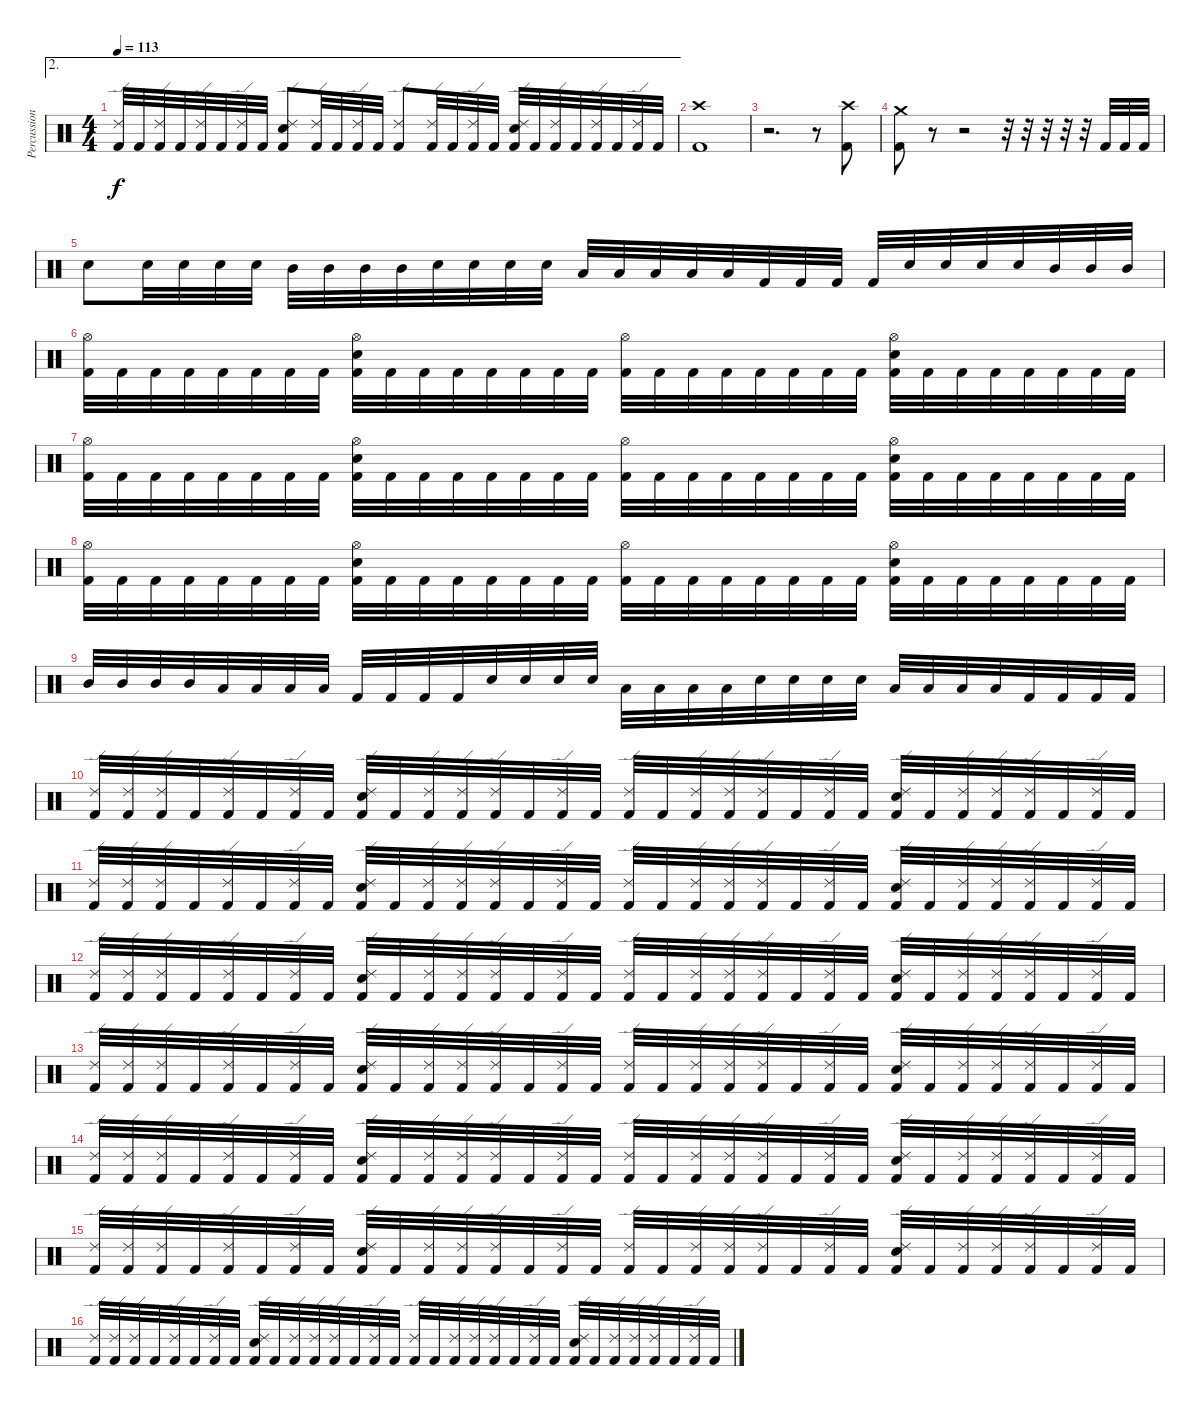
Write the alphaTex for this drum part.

\track ("Percussion" "Percussion") {instrument percussion}
\staff {score}
\articulation defaults
\ae 2
\ts (4 4)
\tempo 113
\clef neutral
\ks c
("Ride (edge) 2" "Kick (hit) 2").32{dy f} "Kick (hit) 2".32 ("Ride (edge) 2" "Kick (hit) 2").32 "Kick (hit) 2".32 ("Ride (edge) 2" "Kick (hit) 2").32 "Kick (hit) 2".32 ("Ride (edge) 2" "Kick (hit) 2").32 "Kick (hit) 2".32 ("Ride (edge) 2" "Electric Snare (hit)" "Kick (hit) 2").8 ("Ride (edge) 2" "Kick (hit) 2").32 "Kick (hit) 2".32 ("Ride (edge) 2" "Kick (hit) 2").32 "Kick (hit) 2".32 ("Ride (edge) 2" "Kick (hit) 2").8 ("Ride (edge) 2" "Kick (hit) 2").32 "Kick (hit) 2".32 ("Ride (edge) 2" "Kick (hit) 2").32 "Kick (hit) 2".32 ("Ride (edge) 2" "Electric Snare (hit)" "Kick (hit) 2").32 "Kick (hit) 2".32 ("Ride (edge) 2" "Kick (hit) 2").32 "Kick (hit) 2".32 ("Ride (edge) 2" "Kick (hit) 2").32 "Kick (hit) 2".32 ("Ride (edge) 2" "Kick (hit) 2").32 "Kick (hit) 2".32 |
("Crash high (hit)" "Kick (hit) 2").1 |
r.2{d} r.8 ("Crash high (hit)" "Kick (hit) 2").8 |
("Crash medium (hit)" "Kick (hit) 2").8 r.8 r.2 r.32 r.32 r.32 r.32 r.32 "Kick (hit) 2".32 "Kick (hit) 2".32 "Kick (hit) 2".32 |
"Electric Snare (hit)".8 "Electric Snare (hit)".32 "Electric Snare (hit)".32 "Electric Snare (hit)".32 "Electric Snare (hit)".32 "Mid Tom (hit)".32 "Mid Tom (hit)".32 "Mid Tom (hit)".32 "Mid Tom (hit)".32 "Electric Snare (hit)".32 "Electric Snare (hit)".32 "Electric Snare (hit)".32 "Electric Snare (hit)".32 "Low Tom (hit)".32 "Low Tom (hit)".32 "Low Tom (hit)".32 "Low Tom (hit)".32 "Low Tom (hit)".32 "Kick (hit) 2".32 "Kick (hit) 2".32 "Kick (hit) 2".32 "Kick (hit) 2".32 "Electric Snare (hit)".32 "Electric Snare (hit)".32 "Electric Snare (hit)".32 "Electric Snare (hit)".32 "Mid Tom (hit)".32 "Mid Tom (hit)".32 "Mid Tom (hit)".32 |
("Hi-Hat (open)" "Kick (hit) 2").32 "Kick (hit) 2".32 "Kick (hit) 2".32 "Kick (hit) 2".32 "Kick (hit) 2".32 "Kick (hit) 2".32 "Kick (hit) 2".32 "Kick (hit) 2".32 ("Hi-Hat (open)" "Electric Snare (hit)" "Kick (hit) 2").32 "Kick (hit) 2".32 "Kick (hit) 2".32 "Kick (hit) 2".32 "Kick (hit) 2".32 "Kick (hit) 2".32 "Kick (hit) 2".32 "Kick (hit) 2".32 ("Hi-Hat (open)" "Kick (hit) 2").32 "Kick (hit) 2".32 "Kick (hit) 2".32 "Kick (hit) 2".32 "Kick (hit) 2".32 "Kick (hit) 2".32 "Kick (hit) 2".32 "Kick (hit) 2".32 ("Hi-Hat (open)" "Electric Snare (hit)" "Kick (hit) 2").32 "Kick (hit) 2".32 "Kick (hit) 2".32 "Kick (hit) 2".32 "Kick (hit) 2".32 "Kick (hit) 2".32 "Kick (hit) 2".32 "Kick (hit) 2".32 |
("Hi-Hat (open)" "Kick (hit) 2").32 "Kick (hit) 2".32 "Kick (hit) 2".32 "Kick (hit) 2".32 "Kick (hit) 2".32 "Kick (hit) 2".32 "Kick (hit) 2".32 "Kick (hit) 2".32 ("Hi-Hat (open)" "Electric Snare (hit)" "Kick (hit) 2").32 "Kick (hit) 2".32 "Kick (hit) 2".32 "Kick (hit) 2".32 "Kick (hit) 2".32 "Kick (hit) 2".32 "Kick (hit) 2".32 "Kick (hit) 2".32 ("Hi-Hat (open)" "Kick (hit) 2").32 "Kick (hit) 2".32 "Kick (hit) 2".32 "Kick (hit) 2".32 "Kick (hit) 2".32 "Kick (hit) 2".32 "Kick (hit) 2".32 "Kick (hit) 2".32 ("Hi-Hat (open)" "Electric Snare (hit)" "Kick (hit) 2").32 "Kick (hit) 2".32 "Kick (hit) 2".32 "Kick (hit) 2".32 "Kick (hit) 2".32 "Kick (hit) 2".32 "Kick (hit) 2".32 "Kick (hit) 2".32 |
("Hi-Hat (open)" "Kick (hit) 2").32 "Kick (hit) 2".32 "Kick (hit) 2".32 "Kick (hit) 2".32 "Kick (hit) 2".32 "Kick (hit) 2".32 "Kick (hit) 2".32 "Kick (hit) 2".32 ("Hi-Hat (open)" "Electric Snare (hit)" "Kick (hit) 2").32 "Kick (hit) 2".32 "Kick (hit) 2".32 "Kick (hit) 2".32 "Kick (hit) 2".32 "Kick (hit) 2".32 "Kick (hit) 2".32 "Kick (hit) 2".32 ("Hi-Hat (open)" "Kick (hit) 2").32 "Kick (hit) 2".32 "Kick (hit) 2".32 "Kick (hit) 2".32 "Kick (hit) 2".32 "Kick (hit) 2".32 "Kick (hit) 2".32 "Kick (hit) 2".32 ("Hi-Hat (open)" "Electric Snare (hit)" "Kick (hit) 2").32 "Kick (hit) 2".32 "Kick (hit) 2".32 "Kick (hit) 2".32 "Kick (hit) 2".32 "Kick (hit) 2".32 "Kick (hit) 2".32 "Kick (hit) 2".32 |
"Mid Tom (hit)".32 "Mid Tom (hit)".32 "Mid Tom (hit)".32 "Mid Tom (hit)".32 "Low Tom (hit)".32 "Low Tom (hit)".32 "Low Tom (hit)".32 "Low Tom (hit)".32 "Kick (hit) 2".32 "Kick (hit) 2".32 "Kick (hit) 2".32 "Kick (hit) 2".32 "Electric Snare (hit)".32 "Electric Snare (hit)".32 "Electric Snare (hit)".32 "Electric Snare (hit)".32 "Low Tom (hit)".32 "Low Tom (hit)".32 "Low Tom (hit)".32 "Low Tom (hit)".32 "Electric Snare (hit)".32 "Electric Snare (hit)".32 "Electric Snare (hit)".32 "Electric Snare (hit)".32 "Low Floor Tom (hit)".32 "Low Floor Tom (hit)".32 "Low Floor Tom (hit)".32 "Low Floor Tom (hit)".32 "Kick (hit) 2".32 "Kick (hit) 2".32 "Kick (hit) 2".32 "Kick (hit) 2".32 |
("Ride (edge) 2" "Kick (hit) 2").32 ("Ride (edge) 2" "Kick (hit) 2").32 ("Ride (edge) 2" "Kick (hit) 2").32 "Kick (hit) 2".32 ("Ride (edge) 2" "Kick (hit) 2").32 "Kick (hit) 2".32 ("Ride (edge) 2" "Kick (hit) 2").32 "Kick (hit) 2".32 ("Ride (edge) 2" "Electric Snare (hit)" "Kick (hit) 2").32 "Kick (hit) 2".32 ("Ride (edge) 2" "Kick (hit) 2").32 ("Ride (edge) 2" "Kick (hit) 2").32 ("Ride (edge) 2" "Kick (hit) 2").32 "Kick (hit) 2".32 ("Ride (edge) 2" "Kick (hit) 2").32 "Kick (hit) 2".32 ("Ride (edge) 2" "Kick (hit) 2").32 "Kick (hit) 2".32 ("Ride (edge) 2" "Kick (hit) 2").32 ("Ride (edge) 2" "Kick (hit) 2").32 ("Ride (edge) 2" "Kick (hit) 2").32 "Kick (hit) 2".32 ("Ride (edge) 2" "Kick (hit) 2").32 "Kick (hit) 2".32 ("Ride (edge) 2" "Electric Snare (hit)" "Kick (hit) 2").32 "Kick (hit) 2".32 ("Ride (edge) 2" "Kick (hit) 2").32 ("Ride (edge) 2" "Kick (hit) 2").32 ("Ride (edge) 2" "Kick (hit) 2").32 "Kick (hit) 2".32 ("Ride (edge) 2" "Kick (hit) 2").32 "Kick (hit) 2".32 |
("Ride (edge) 2" "Kick (hit) 2").32 ("Ride (edge) 2" "Kick (hit) 2").32 ("Ride (edge) 2" "Kick (hit) 2").32 "Kick (hit) 2".32 ("Ride (edge) 2" "Kick (hit) 2").32 "Kick (hit) 2".32 ("Ride (edge) 2" "Kick (hit) 2").32 "Kick (hit) 2".32 ("Ride (edge) 2" "Electric Snare (hit)" "Kick (hit) 2").32 "Kick (hit) 2".32 ("Ride (edge) 2" "Kick (hit) 2").32 ("Ride (edge) 2" "Kick (hit) 2").32 ("Ride (edge) 2" "Kick (hit) 2").32 "Kick (hit) 2".32 ("Ride (edge) 2" "Kick (hit) 2").32 "Kick (hit) 2".32 ("Ride (edge) 2" "Kick (hit) 2").32 "Kick (hit) 2".32 ("Ride (edge) 2" "Kick (hit) 2").32 ("Ride (edge) 2" "Kick (hit) 2").32 ("Ride (edge) 2" "Kick (hit) 2").32 "Kick (hit) 2".32 ("Ride (edge) 2" "Kick (hit) 2").32 "Kick (hit) 2".32 ("Ride (edge) 2" "Electric Snare (hit)" "Kick (hit) 2").32 "Kick (hit) 2".32 ("Ride (edge) 2" "Kick (hit) 2").32 ("Ride (edge) 2" "Kick (hit) 2").32 ("Ride (edge) 2" "Kick (hit) 2").32 "Kick (hit) 2".32 ("Ride (edge) 2" "Kick (hit) 2").32 "Kick (hit) 2".32 |
("Ride (edge) 2" "Kick (hit) 2").32 ("Ride (edge) 2" "Kick (hit) 2").32 ("Ride (edge) 2" "Kick (hit) 2").32 "Kick (hit) 2".32 ("Ride (edge) 2" "Kick (hit) 2").32 "Kick (hit) 2".32 ("Ride (edge) 2" "Kick (hit) 2").32 "Kick (hit) 2".32 ("Ride (edge) 2" "Electric Snare (hit)" "Kick (hit) 2").32 "Kick (hit) 2".32 ("Ride (edge) 2" "Kick (hit) 2").32 ("Ride (edge) 2" "Kick (hit) 2").32 ("Ride (edge) 2" "Kick (hit) 2").32 "Kick (hit) 2".32 ("Ride (edge) 2" "Kick (hit) 2").32 "Kick (hit) 2".32 ("Ride (edge) 2" "Kick (hit) 2").32 "Kick (hit) 2".32 ("Ride (edge) 2" "Kick (hit) 2").32 ("Ride (edge) 2" "Kick (hit) 2").32 ("Ride (edge) 2" "Kick (hit) 2").32 "Kick (hit) 2".32 ("Ride (edge) 2" "Kick (hit) 2").32 "Kick (hit) 2".32 ("Ride (edge) 2" "Electric Snare (hit)" "Kick (hit) 2").32 "Kick (hit) 2".32 ("Ride (edge) 2" "Kick (hit) 2").32 ("Ride (edge) 2" "Kick (hit) 2").32 ("Ride (edge) 2" "Kick (hit) 2").32 "Kick (hit) 2".32 ("Ride (edge) 2" "Kick (hit) 2").32 "Kick (hit) 2".32 |
("Ride (edge) 2" "Kick (hit) 2").32 ("Ride (edge) 2" "Kick (hit) 2").32 ("Ride (edge) 2" "Kick (hit) 2").32 "Kick (hit) 2".32 ("Ride (edge) 2" "Kick (hit) 2").32 "Kick (hit) 2".32 ("Ride (edge) 2" "Kick (hit) 2").32 "Kick (hit) 2".32 ("Ride (edge) 2" "Electric Snare (hit)" "Kick (hit) 2").32 "Kick (hit) 2".32 ("Ride (edge) 2" "Kick (hit) 2").32 ("Ride (edge) 2" "Kick (hit) 2").32 ("Ride (edge) 2" "Kick (hit) 2").32 "Kick (hit) 2".32 ("Ride (edge) 2" "Kick (hit) 2").32 "Kick (hit) 2".32 ("Ride (edge) 2" "Kick (hit) 2").32 "Kick (hit) 2".32 ("Ride (edge) 2" "Kick (hit) 2").32 ("Ride (edge) 2" "Kick (hit) 2").32 ("Ride (edge) 2" "Kick (hit) 2").32 "Kick (hit) 2".32 ("Ride (edge) 2" "Kick (hit) 2").32 "Kick (hit) 2".32 ("Ride (edge) 2" "Electric Snare (hit)" "Kick (hit) 2").32 "Kick (hit) 2".32 ("Ride (edge) 2" "Kick (hit) 2").32 ("Ride (edge) 2" "Kick (hit) 2").32 ("Ride (edge) 2" "Kick (hit) 2").32 "Kick (hit) 2".32 ("Ride (edge) 2" "Kick (hit) 2").32 "Kick (hit) 2".32 |
("Ride (edge) 2" "Kick (hit) 2").32 ("Ride (edge) 2" "Kick (hit) 2").32 ("Ride (edge) 2" "Kick (hit) 2").32 "Kick (hit) 2".32 ("Ride (edge) 2" "Kick (hit) 2").32 "Kick (hit) 2".32 ("Ride (edge) 2" "Kick (hit) 2").32 "Kick (hit) 2".32 ("Ride (edge) 2" "Electric Snare (hit)" "Kick (hit) 2").32 "Kick (hit) 2".32 ("Ride (edge) 2" "Kick (hit) 2").32 ("Ride (edge) 2" "Kick (hit) 2").32 ("Ride (edge) 2" "Kick (hit) 2").32 "Kick (hit) 2".32 ("Ride (edge) 2" "Kick (hit) 2").32 "Kick (hit) 2".32 ("Ride (edge) 2" "Kick (hit) 2").32 "Kick (hit) 2".32 ("Ride (edge) 2" "Kick (hit) 2").32 ("Ride (edge) 2" "Kick (hit) 2").32 ("Ride (edge) 2" "Kick (hit) 2").32 "Kick (hit) 2".32 ("Ride (edge) 2" "Kick (hit) 2").32 "Kick (hit) 2".32 ("Ride (edge) 2" "Electric Snare (hit)" "Kick (hit) 2").32 "Kick (hit) 2".32 ("Ride (edge) 2" "Kick (hit) 2").32 ("Ride (edge) 2" "Kick (hit) 2").32 ("Ride (edge) 2" "Kick (hit) 2").32 "Kick (hit) 2".32 ("Ride (edge) 2" "Kick (hit) 2").32 "Kick (hit) 2".32 |
("Ride (edge) 2" "Kick (hit) 2").32 ("Ride (edge) 2" "Kick (hit) 2").32 ("Ride (edge) 2" "Kick (hit) 2").32 "Kick (hit) 2".32 ("Ride (edge) 2" "Kick (hit) 2").32 "Kick (hit) 2".32 ("Ride (edge) 2" "Kick (hit) 2").32 "Kick (hit) 2".32 ("Ride (edge) 2" "Electric Snare (hit)" "Kick (hit) 2").32 "Kick (hit) 2".32 ("Ride (edge) 2" "Kick (hit) 2").32 ("Ride (edge) 2" "Kick (hit) 2").32 ("Ride (edge) 2" "Kick (hit) 2").32 "Kick (hit) 2".32 ("Ride (edge) 2" "Kick (hit) 2").32 "Kick (hit) 2".32 ("Ride (edge) 2" "Kick (hit) 2").32 "Kick (hit) 2".32 ("Ride (edge) 2" "Kick (hit) 2").32 ("Ride (edge) 2" "Kick (hit) 2").32 ("Ride (edge) 2" "Kick (hit) 2").32 "Kick (hit) 2".32 ("Ride (edge) 2" "Kick (hit) 2").32 "Kick (hit) 2".32 ("Ride (edge) 2" "Electric Snare (hit)" "Kick (hit) 2").32 "Kick (hit) 2".32 ("Ride (edge) 2" "Kick (hit) 2").32 ("Ride (edge) 2" "Kick (hit) 2").32 ("Ride (edge) 2" "Kick (hit) 2").32 "Kick (hit) 2".32 ("Ride (edge) 2" "Kick (hit) 2").32 "Kick (hit) 2".32 |
("Ride (edge) 2" "Kick (hit) 2").32 ("Ride (edge) 2" "Kick (hit) 2").32 ("Ride (edge) 2" "Kick (hit) 2").32 "Kick (hit) 2".32 ("Ride (edge) 2" "Kick (hit) 2").32 "Kick (hit) 2".32 ("Ride (edge) 2" "Kick (hit) 2").32 "Kick (hit) 2".32 ("Ride (edge) 2" "Electric Snare (hit)" "Kick (hit) 2").32 "Kick (hit) 2".32 ("Ride (edge) 2" "Kick (hit) 2").32 ("Ride (edge) 2" "Kick (hit) 2").32 ("Ride (edge) 2" "Kick (hit) 2").32 "Kick (hit) 2".32 ("Ride (edge) 2" "Kick (hit) 2").32 "Kick (hit) 2".32 ("Ride (edge) 2" "Kick (hit) 2").32 "Kick (hit) 2".32 ("Ride (edge) 2" "Kick (hit) 2").32 ("Ride (edge) 2" "Kick (hit) 2").32 ("Ride (edge) 2" "Kick (hit) 2").32 "Kick (hit) 2".32 ("Ride (edge) 2" "Kick (hit) 2").32 "Kick (hit) 2".32 ("Ride (edge) 2" "Electric Snare (hit)" "Kick (hit) 2").32 "Kick (hit) 2".32 ("Ride (edge) 2" "Kick (hit) 2").32 ("Ride (edge) 2" "Kick (hit) 2").32 ("Ride (edge) 2" "Kick (hit) 2").32 "Kick (hit) 2".32 ("Ride (edge) 2" "Kick (hit) 2").32 "Kick (hit) 2".32
